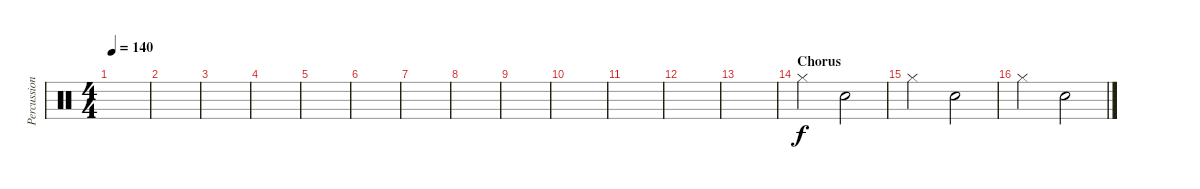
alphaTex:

\track ("Percussion" "Percussion") {instrument percussion}
\staff {score}
\articulation defaults
\ts (4 4)
\tempo 140
\clef neutral
\ks c
|
|
|
|
|
|
|
|
|
|
|
|
|
\section ("" "Chorus")
"Hi-Hat (closed)".2 "Snare (hit) 2".2 |
"Hi-Hat (closed)".2 "Snare (hit) 2".2 |
"Hi-Hat (closed)".2 "Snare (hit) 2".2
